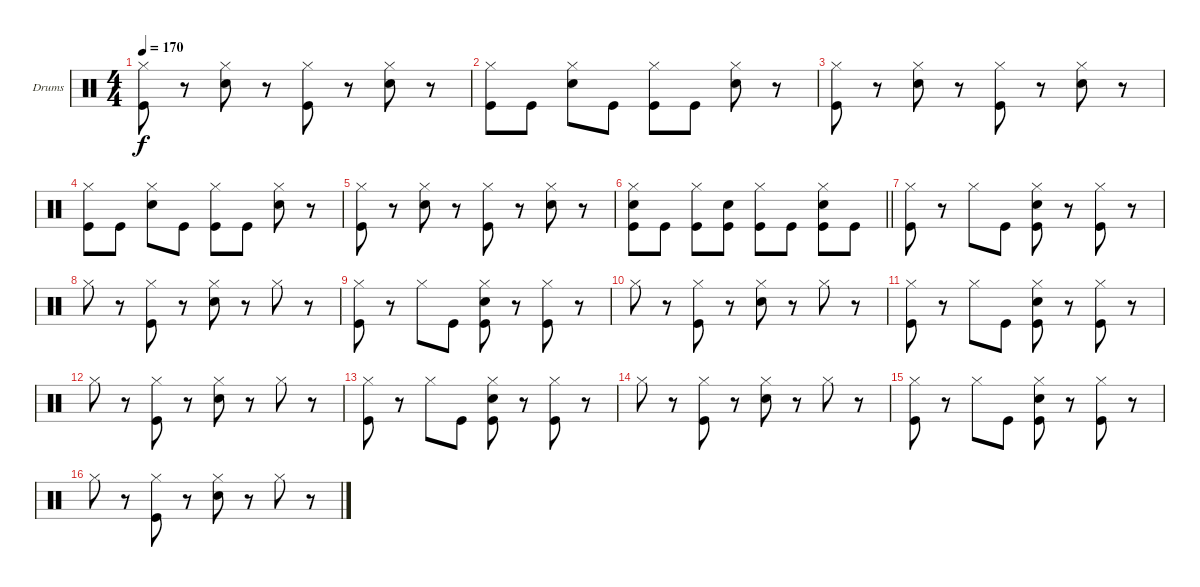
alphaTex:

\bracketExtendMode groupsimilarinstruments
\firstSystemTrackNameOrientation horizontal
\otherSystemsTrackNameOrientation horizontal
\track ("Drumkit" "Drums") {instrument percussion}
\staff {score}
\articulation defaults
\ts (4 4)
\tempo 170
\clef neutral
\ks c
("Hi-Hat (closed)" "Kick (hit)").8{dy f} r.8 ("Hi-Hat (closed)" "Snare (hit) 2").8 r.8 ("Hi-Hat (closed)" "Kick (hit)").8 r.8 ("Hi-Hat (closed)" "Snare (hit) 2").8 r.8 |
("Hi-Hat (closed)" "Kick (hit)").8 "Kick (hit)".8 ("Hi-Hat (closed)" "Snare (hit) 2").8 "Kick (hit)".8 ("Hi-Hat (closed)" "Kick (hit)").8 "Kick (hit)".8 ("Hi-Hat (closed)" "Snare (hit) 2").8 r.8 |
("Hi-Hat (closed)" "Kick (hit)").8 r.8 ("Hi-Hat (closed)" "Snare (hit) 2").8 r.8 ("Hi-Hat (closed)" "Kick (hit)").8 r.8 ("Hi-Hat (closed)" "Snare (hit) 2").8 r.8 |
("Hi-Hat (closed)" "Kick (hit)").8 "Kick (hit)".8 ("Hi-Hat (closed)" "Snare (hit) 2").8 "Kick (hit)".8 ("Hi-Hat (closed)" "Kick (hit)").8 "Kick (hit)".8 ("Hi-Hat (closed)" "Snare (hit) 2").8 r.8 |
("Hi-Hat (closed)" "Kick (hit)").8 r.8 ("Hi-Hat (closed)" "Snare (hit) 2").8 r.8 ("Hi-Hat (closed)" "Kick (hit)").8 r.8 ("Hi-Hat (closed)" "Snare (hit) 2").8 r.8 |
\barLineRight lightlight
("Hi-Hat (closed)" "Snare (hit) 2" "Kick (hit)").8 "Kick (hit)".8 ("Hi-Hat (closed)" "Kick (hit)").8 ("Snare (hit) 2" "Kick (hit)").8 ("Hi-Hat (closed)" "Kick (hit)").8 "Kick (hit)".8 ("Hi-Hat (closed)" "Snare (hit) 2" "Kick (hit)").8 "Kick (hit)".8 |
("Hi-Hat (closed)" "Kick (hit)").8 r.8 "Hi-Hat (closed)".8 "Kick (hit)".8 ("Hi-Hat (closed)" "Snare (hit) 2" "Kick (hit)").8 r.8 ("Hi-Hat (closed)" "Kick (hit)").8 r.8 |
"Hi-Hat (closed)".8 r.8 ("Hi-Hat (closed)" "Kick (hit)").8 r.8 ("Hi-Hat (closed)" "Snare (hit) 2").8 r.8 "Hi-Hat (closed)".8 r.8 |
("Hi-Hat (closed)" "Kick (hit)").8 r.8 "Hi-Hat (closed)".8 "Kick (hit)".8 ("Hi-Hat (closed)" "Snare (hit) 2" "Kick (hit)").8 r.8 ("Hi-Hat (closed)" "Kick (hit)").8 r.8 |
"Hi-Hat (closed)".8 r.8 ("Hi-Hat (closed)" "Kick (hit)").8 r.8 ("Hi-Hat (closed)" "Snare (hit) 2").8 r.8 "Hi-Hat (closed)".8 r.8 |
("Hi-Hat (closed)" "Kick (hit)").8 r.8 "Hi-Hat (closed)".8 "Kick (hit)".8 ("Hi-Hat (closed)" "Snare (hit) 2" "Kick (hit)").8 r.8 ("Hi-Hat (closed)" "Kick (hit)").8 r.8 |
"Hi-Hat (closed)".8 r.8 ("Hi-Hat (closed)" "Kick (hit)").8 r.8 ("Hi-Hat (closed)" "Snare (hit) 2").8 r.8 "Hi-Hat (closed)".8 r.8 |
("Hi-Hat (closed)" "Kick (hit)").8 r.8 "Hi-Hat (closed)".8 "Kick (hit)".8 ("Hi-Hat (closed)" "Snare (hit) 2" "Kick (hit)").8 r.8 ("Hi-Hat (closed)" "Kick (hit)").8 r.8 |
"Hi-Hat (closed)".8 r.8 ("Hi-Hat (closed)" "Kick (hit)").8 r.8 ("Hi-Hat (closed)" "Snare (hit) 2").8 r.8 "Hi-Hat (closed)".8 r.8 |
("Hi-Hat (closed)" "Kick (hit)").8 r.8 "Hi-Hat (closed)".8 "Kick (hit)".8 ("Hi-Hat (closed)" "Snare (hit) 2" "Kick (hit)").8 r.8 ("Hi-Hat (closed)" "Kick (hit)").8 r.8 |
"Hi-Hat (closed)".8 r.8 ("Hi-Hat (closed)" "Kick (hit)").8 r.8 ("Hi-Hat (closed)" "Snare (hit) 2").8 r.8 "Hi-Hat (closed)".8 r.8
